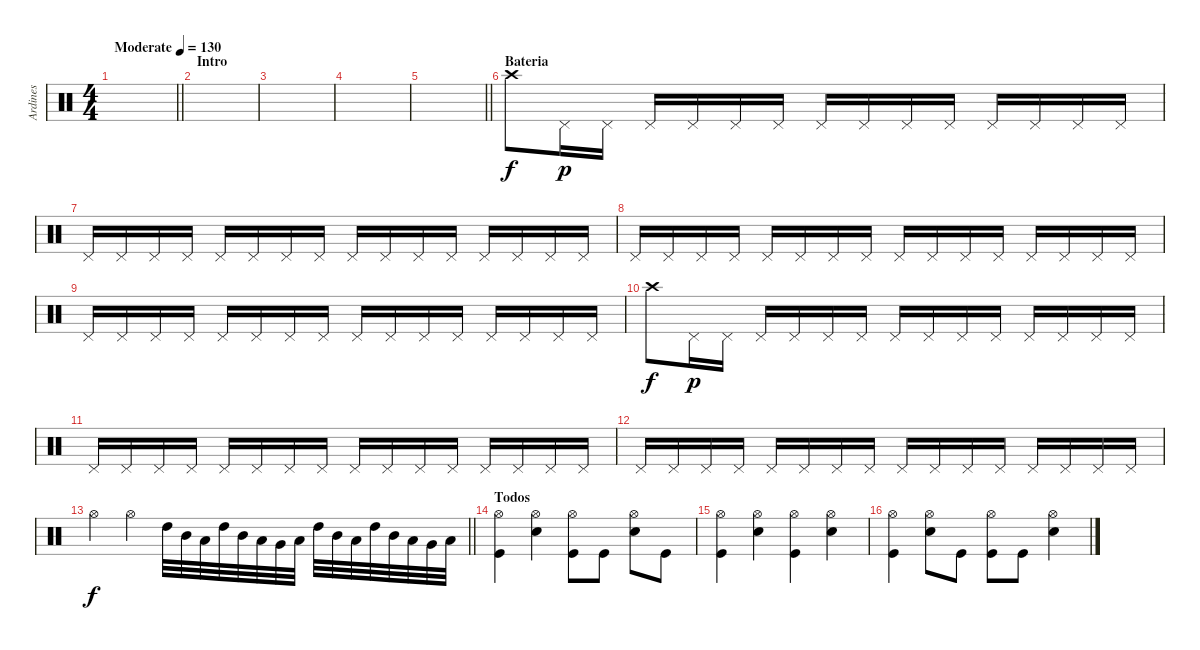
\track ("Ardines" "Ardines") {instrument percussion}
\staff {score}
\articulation defaults
\ts (4 4)
\tempo (130 "Moderate")
\clef neutral
\barLineRight lightlight
\ks c
|
\section ("" "Intro")
|
|
|
\barLineRight lightlight
|
\section ("" "Bateria")
"Crash high (hit)".8 "Pedal Hi-Hat (hit)".16{dy p} "Pedal Hi-Hat (hit)".16 "Pedal Hi-Hat (hit)".16 "Pedal Hi-Hat (hit)".16 "Pedal Hi-Hat (hit)".16 "Pedal Hi-Hat (hit)".16 "Pedal Hi-Hat (hit)".16 "Pedal Hi-Hat (hit)".16 "Pedal Hi-Hat (hit)".16 "Pedal Hi-Hat (hit)".16 "Pedal Hi-Hat (hit)".16 "Pedal Hi-Hat (hit)".16 "Pedal Hi-Hat (hit)".16 "Pedal Hi-Hat (hit)".16 |
"Pedal Hi-Hat (hit)".16 "Pedal Hi-Hat (hit)".16 "Pedal Hi-Hat (hit)".16 "Pedal Hi-Hat (hit)".16 "Pedal Hi-Hat (hit)".16 "Pedal Hi-Hat (hit)".16 "Pedal Hi-Hat (hit)".16 "Pedal Hi-Hat (hit)".16 "Pedal Hi-Hat (hit)".16 "Pedal Hi-Hat (hit)".16 "Pedal Hi-Hat (hit)".16 "Pedal Hi-Hat (hit)".16 "Pedal Hi-Hat (hit)".16 "Pedal Hi-Hat (hit)".16 "Pedal Hi-Hat (hit)".16 "Pedal Hi-Hat (hit)".16 |
"Pedal Hi-Hat (hit)".16 "Pedal Hi-Hat (hit)".16 "Pedal Hi-Hat (hit)".16 "Pedal Hi-Hat (hit)".16 "Pedal Hi-Hat (hit)".16 "Pedal Hi-Hat (hit)".16 "Pedal Hi-Hat (hit)".16 "Pedal Hi-Hat (hit)".16 "Pedal Hi-Hat (hit)".16 "Pedal Hi-Hat (hit)".16 "Pedal Hi-Hat (hit)".16 "Pedal Hi-Hat (hit)".16 "Pedal Hi-Hat (hit)".16 "Pedal Hi-Hat (hit)".16 "Pedal Hi-Hat (hit)".16 "Pedal Hi-Hat (hit)".16 |
"Pedal Hi-Hat (hit)".16 "Pedal Hi-Hat (hit)".16 "Pedal Hi-Hat (hit)".16 "Pedal Hi-Hat (hit)".16 "Pedal Hi-Hat (hit)".16 "Pedal Hi-Hat (hit)".16 "Pedal Hi-Hat (hit)".16 "Pedal Hi-Hat (hit)".16 "Pedal Hi-Hat (hit)".16 "Pedal Hi-Hat (hit)".16 "Pedal Hi-Hat (hit)".16 "Pedal Hi-Hat (hit)".16 "Pedal Hi-Hat (hit)".16 "Pedal Hi-Hat (hit)".16 "Pedal Hi-Hat (hit)".16 "Pedal Hi-Hat (hit)".16 |
"Crash high (hit)".8{dy f} "Pedal Hi-Hat (hit)".16{dy p} "Pedal Hi-Hat (hit)".16 "Pedal Hi-Hat (hit)".16 "Pedal Hi-Hat (hit)".16 "Pedal Hi-Hat (hit)".16 "Pedal Hi-Hat (hit)".16 "Pedal Hi-Hat (hit)".16 "Pedal Hi-Hat (hit)".16 "Pedal Hi-Hat (hit)".16 "Pedal Hi-Hat (hit)".16 "Pedal Hi-Hat (hit)".16 "Pedal Hi-Hat (hit)".16 "Pedal Hi-Hat (hit)".16 "Pedal Hi-Hat (hit)".16 |
"Pedal Hi-Hat (hit)".16 "Pedal Hi-Hat (hit)".16 "Pedal Hi-Hat (hit)".16 "Pedal Hi-Hat (hit)".16 "Pedal Hi-Hat (hit)".16 "Pedal Hi-Hat (hit)".16 "Pedal Hi-Hat (hit)".16 "Pedal Hi-Hat (hit)".16 "Pedal Hi-Hat (hit)".16 "Pedal Hi-Hat (hit)".16 "Pedal Hi-Hat (hit)".16 "Pedal Hi-Hat (hit)".16 "Pedal Hi-Hat (hit)".16 "Pedal Hi-Hat (hit)".16 "Pedal Hi-Hat (hit)".16 "Pedal Hi-Hat (hit)".16 |
"Pedal Hi-Hat (hit)".16 "Pedal Hi-Hat (hit)".16 "Pedal Hi-Hat (hit)".16 "Pedal Hi-Hat (hit)".16 "Pedal Hi-Hat (hit)".16 "Pedal Hi-Hat (hit)".16 "Pedal Hi-Hat (hit)".16 "Pedal Hi-Hat (hit)".16 "Pedal Hi-Hat (hit)".16 "Pedal Hi-Hat (hit)".16 "Pedal Hi-Hat (hit)".16 "Pedal Hi-Hat (hit)".16 "Pedal Hi-Hat (hit)".16 "Pedal Hi-Hat (hit)".16 "Pedal Hi-Hat (hit)".16 "Pedal Hi-Hat (hit)".16 |
\barLineRight lightlight "Hi-Hat (open)".4{dy f} "Hi-Hat (open)".4 "High Tom (hit)".32 "Mid Tom (hit)".32 "Low Tom (hit)".32 "High Tom (hit)".32 "Mid Tom (hit)".32 "Low Tom (hit)".32 "Very Low Tom (hit)".32 "Low Tom (hit)".32 "High Tom (hit)".32 "Mid Tom (hit)".32 "Low Tom (hit)".32 "High Tom (hit)".32 "Mid Tom (hit)".32 "Low Tom (hit)".32 "Very Low Tom (hit)".32 "Low Tom (hit)".32
|
\section ("" "Todos")
("Hi-Hat (open)" "Kick (hit)").4 ("Hi-Hat (open)" "Electric Snare (hit)").4 ("Hi-Hat (open)" "Kick (hit)").8 "Kick (hit)".8 ("Hi-Hat (open)" "Electric Snare (hit)").8 "Kick (hit)".8 |
("Hi-Hat (open)" "Kick (hit)").4 ("Hi-Hat (open)" "Electric Snare (hit)").4 ("Hi-Hat (open)" "Kick (hit)").4 ("Hi-Hat (open)" "Electric Snare (hit)").4 |
("Hi-Hat (open)" "Kick (hit)").4 ("Hi-Hat (open)" "Electric Snare (hit)").8 "Kick (hit)".8 ("Hi-Hat (open)" "Kick (hit)").8 "Kick (hit)".8 ("Hi-Hat (open)" "Electric Snare (hit)").4
